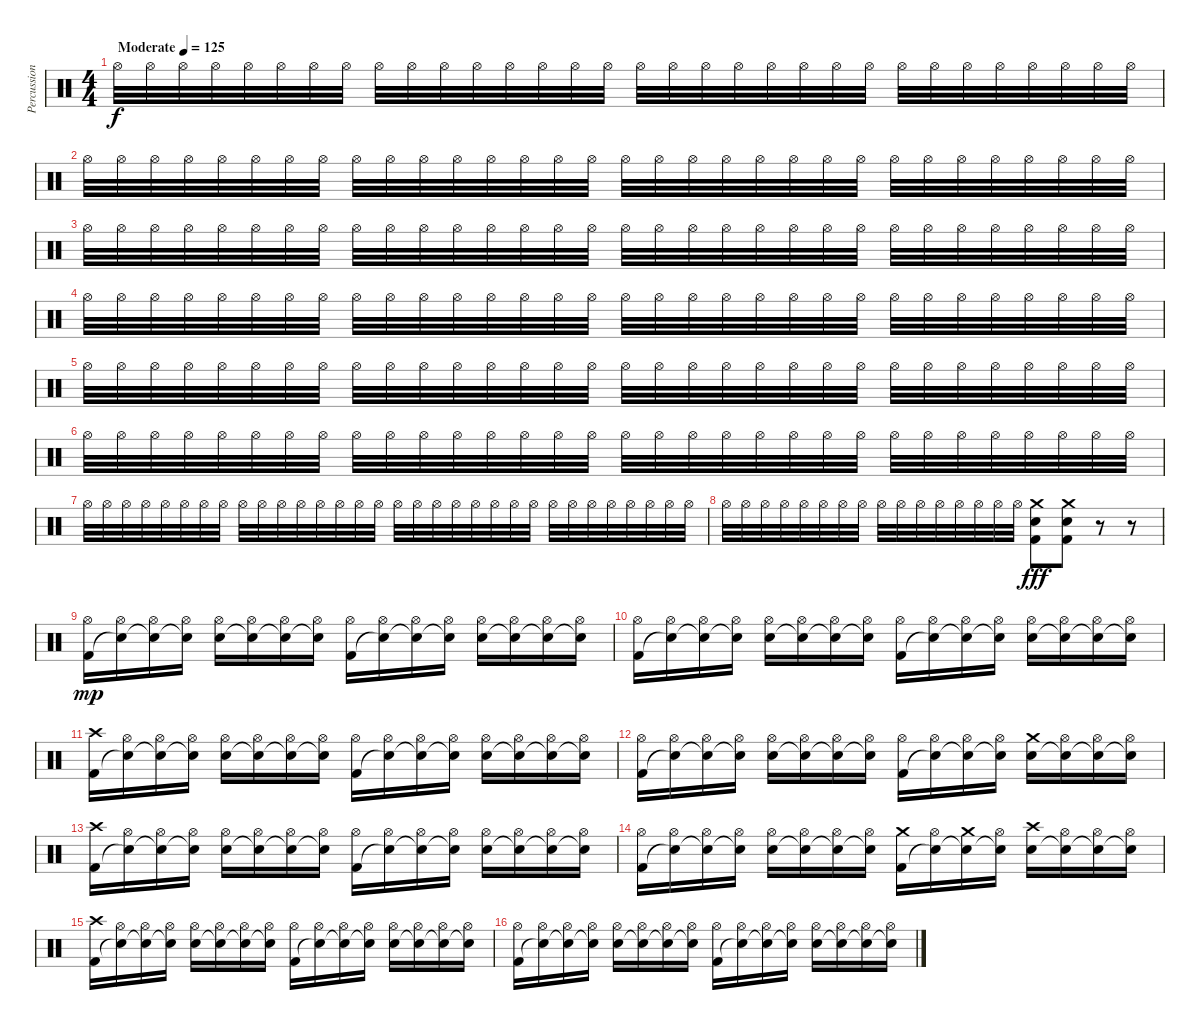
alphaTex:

\track ("Percussion" "Percussion") {instrument percussion}
\staff {score}
\articulation defaults
\ts (4 4)
\tempo (125 "Moderate")
\clef neutral
\ks c "Hi-Hat (open)".32{dy f volume 3} "Hi-Hat (open)".32{volume 16} "Hi-Hat (open)".32 "Hi-Hat (open)".32 "Hi-Hat (open)".32 "Hi-Hat (open)".32 "Hi-Hat (open)".32 "Hi-Hat (open)".32 "Hi-Hat (open)".32 "Hi-Hat (open)".32 "Hi-Hat (open)".32 "Hi-Hat (open)".32 "Hi-Hat (open)".32 "Hi-Hat (open)".32 "Hi-Hat (open)".32 "Hi-Hat (open)".32 "Hi-Hat (open)".32 "Hi-Hat (open)".32 "Hi-Hat (open)".32 "Hi-Hat (open)".32 "Hi-Hat (open)".32 "Hi-Hat (open)".32 "Hi-Hat (open)".32 "Hi-Hat (open)".32 "Hi-Hat (open)".32 "Hi-Hat (open)".32 "Hi-Hat (open)".32 "Hi-Hat (open)".32 "Hi-Hat (open)".32 "Hi-Hat (open)".32 "Hi-Hat (open)".32 "Hi-Hat (open)".32
|
"Hi-Hat (open)".32 "Hi-Hat (open)".32 "Hi-Hat (open)".32 "Hi-Hat (open)".32 "Hi-Hat (open)".32 "Hi-Hat (open)".32 "Hi-Hat (open)".32 "Hi-Hat (open)".32 "Hi-Hat (open)".32 "Hi-Hat (open)".32 "Hi-Hat (open)".32 "Hi-Hat (open)".32 "Hi-Hat (open)".32 "Hi-Hat (open)".32 "Hi-Hat (open)".32 "Hi-Hat (open)".32 "Hi-Hat (open)".32 "Hi-Hat (open)".32 "Hi-Hat (open)".32 "Hi-Hat (open)".32 "Hi-Hat (open)".32 "Hi-Hat (open)".32 "Hi-Hat (open)".32 "Hi-Hat (open)".32 "Hi-Hat (open)".32 "Hi-Hat (open)".32 "Hi-Hat (open)".32 "Hi-Hat (open)".32 "Hi-Hat (open)".32 "Hi-Hat (open)".32 "Hi-Hat (open)".32 "Hi-Hat (open)".32 |
"Hi-Hat (open)".32 "Hi-Hat (open)".32 "Hi-Hat (open)".32 "Hi-Hat (open)".32 "Hi-Hat (open)".32 "Hi-Hat (open)".32 "Hi-Hat (open)".32 "Hi-Hat (open)".32 "Hi-Hat (open)".32 "Hi-Hat (open)".32 "Hi-Hat (open)".32 "Hi-Hat (open)".32 "Hi-Hat (open)".32 "Hi-Hat (open)".32 "Hi-Hat (open)".32 "Hi-Hat (open)".32 "Hi-Hat (open)".32 "Hi-Hat (open)".32 "Hi-Hat (open)".32 "Hi-Hat (open)".32 "Hi-Hat (open)".32 "Hi-Hat (open)".32 "Hi-Hat (open)".32 "Hi-Hat (open)".32 "Hi-Hat (open)".32 "Hi-Hat (open)".32 "Hi-Hat (open)".32 "Hi-Hat (open)".32 "Hi-Hat (open)".32 "Hi-Hat (open)".32 "Hi-Hat (open)".32 "Hi-Hat (open)".32 |
"Hi-Hat (open)".32 "Hi-Hat (open)".32 "Hi-Hat (open)".32 "Hi-Hat (open)".32 "Hi-Hat (open)".32 "Hi-Hat (open)".32 "Hi-Hat (open)".32 "Hi-Hat (open)".32 "Hi-Hat (open)".32 "Hi-Hat (open)".32 "Hi-Hat (open)".32 "Hi-Hat (open)".32 "Hi-Hat (open)".32 "Hi-Hat (open)".32 "Hi-Hat (open)".32 "Hi-Hat (open)".32 "Hi-Hat (open)".32 "Hi-Hat (open)".32 "Hi-Hat (open)".32 "Hi-Hat (open)".32 "Hi-Hat (open)".32 "Hi-Hat (open)".32 "Hi-Hat (open)".32 "Hi-Hat (open)".32 "Hi-Hat (open)".32 "Hi-Hat (open)".32 "Hi-Hat (open)".32 "Hi-Hat (open)".32 "Hi-Hat (open)".32 "Hi-Hat (open)".32 "Hi-Hat (open)".32 "Hi-Hat (open)".32 |
"Hi-Hat (open)".32{volume 3} "Hi-Hat (open)".32{volume 16} "Hi-Hat (open)".32 "Hi-Hat (open)".32 "Hi-Hat (open)".32 "Hi-Hat (open)".32 "Hi-Hat (open)".32 "Hi-Hat (open)".32 "Hi-Hat (open)".32 "Hi-Hat (open)".32 "Hi-Hat (open)".32 "Hi-Hat (open)".32 "Hi-Hat (open)".32 "Hi-Hat (open)".32 "Hi-Hat (open)".32 "Hi-Hat (open)".32 "Hi-Hat (open)".32 "Hi-Hat (open)".32 "Hi-Hat (open)".32 "Hi-Hat (open)".32 "Hi-Hat (open)".32 "Hi-Hat (open)".32 "Hi-Hat (open)".32 "Hi-Hat (open)".32 "Hi-Hat (open)".32 "Hi-Hat (open)".32 "Hi-Hat (open)".32 "Hi-Hat (open)".32 "Hi-Hat (open)".32 "Hi-Hat (open)".32 "Hi-Hat (open)".32 "Hi-Hat (open)".32 |
"Hi-Hat (open)".32 "Hi-Hat (open)".32 "Hi-Hat (open)".32 "Hi-Hat (open)".32 "Hi-Hat (open)".32 "Hi-Hat (open)".32 "Hi-Hat (open)".32 "Hi-Hat (open)".32 "Hi-Hat (open)".32 "Hi-Hat (open)".32 "Hi-Hat (open)".32 "Hi-Hat (open)".32 "Hi-Hat (open)".32 "Hi-Hat (open)".32 "Hi-Hat (open)".32 "Hi-Hat (open)".32 "Hi-Hat (open)".32 "Hi-Hat (open)".32 "Hi-Hat (open)".32 "Hi-Hat (open)".32 "Hi-Hat (open)".32 "Hi-Hat (open)".32 "Hi-Hat (open)".32 "Hi-Hat (open)".32 "Hi-Hat (open)".32 "Hi-Hat (open)".32 "Hi-Hat (open)".32 "Hi-Hat (open)".32 "Hi-Hat (open)".32 "Hi-Hat (open)".32 "Hi-Hat (open)".32 "Hi-Hat (open)".32 |
"Hi-Hat (open)".32 "Hi-Hat (open)".32 "Hi-Hat (open)".32 "Hi-Hat (open)".32 "Hi-Hat (open)".32 "Hi-Hat (open)".32 "Hi-Hat (open)".32 "Hi-Hat (open)".32 "Hi-Hat (open)".32 "Hi-Hat (open)".32 "Hi-Hat (open)".32 "Hi-Hat (open)".32 "Hi-Hat (open)".32 "Hi-Hat (open)".32 "Hi-Hat (open)".32 "Hi-Hat (open)".32 "Hi-Hat (open)".32 "Hi-Hat (open)".32 "Hi-Hat (open)".32 "Hi-Hat (open)".32 "Hi-Hat (open)".32 "Hi-Hat (open)".32 "Hi-Hat (open)".32 "Hi-Hat (open)".32 "Hi-Hat (open)".32 "Hi-Hat (open)".32 "Hi-Hat (open)".32 "Hi-Hat (open)".32 "Hi-Hat (open)".32 "Hi-Hat (open)".32 "Hi-Hat (open)".32 "Hi-Hat (open)".32 |
"Hi-Hat (open)".32 "Hi-Hat (open)".32 "Hi-Hat (open)".32 "Hi-Hat (open)".32 "Hi-Hat (open)".32 "Hi-Hat (open)".32 "Hi-Hat (open)".32 "Hi-Hat (open)".32 "Hi-Hat (open)".32 "Hi-Hat (open)".32 "Hi-Hat (open)".32 "Hi-Hat (open)".32 "Hi-Hat (open)".32 "Hi-Hat (open)".32 "Hi-Hat (open)".32 "Hi-Hat (open)".32 ("Electric Snare (hit)" "Kick (hit) 2" "Crash medium (hit)").8{dy fff} ("Electric Snare (hit)" "Kick (hit) 2" "Crash medium (hit)").8 r.8 r.8 |
("Kick (hit) 2" "Hi-Hat (open)").16{dy mp} ("Snare (hit)"{t} "Hi-Hat (open)").16 ("Snare (hit)"{t} "Hi-Hat (open)").16 ("Snare (hit)"{t} "Hi-Hat (open)").16 ("Electric Snare (hit)" "Hi-Hat (open)").16 ("Snare (hit)"{t} "Hi-Hat (open)").16 ("Snare (hit)"{t} "Hi-Hat (open)").16 ("Snare (hit)"{t} "Hi-Hat (open)").16 ("Kick (hit) 2" "Hi-Hat (open)").16 ("Snare (hit)"{t} "Hi-Hat (open)").16 ("Snare (hit)"{t} "Hi-Hat (open)").16 ("Snare (hit)"{t} "Hi-Hat (open)").16 ("Electric Snare (hit)" "Hi-Hat (open)").16 ("Snare (hit)"{t} "Hi-Hat (open)").16 ("Snare (hit)"{t} "Hi-Hat (open)").16 ("Snare (hit)"{t} "Hi-Hat (open)").16 |
("Kick (hit) 2" "Hi-Hat (open)").16 ("Snare (hit)"{t} "Hi-Hat (open)").16 ("Snare (hit)"{t} "Hi-Hat (open)").16 ("Snare (hit)"{t} "Hi-Hat (open)").16 ("Electric Snare (hit)" "Hi-Hat (open)").16 ("Snare (hit)"{t} "Hi-Hat (open)").16 ("Snare (hit)"{t} "Hi-Hat (open)").16 ("Snare (hit)"{t} "Hi-Hat (open)").16 ("Kick (hit) 2" "Hi-Hat (open)").16 ("Snare (hit)"{t} "Hi-Hat (open)").16 ("Snare (hit)"{t} "Hi-Hat (open)").16 ("Snare (hit)"{t} "Hi-Hat (open)").16 ("Electric Snare (hit)" "Hi-Hat (open)").16 ("Snare (hit)"{t} "Hi-Hat (open)").16 ("Snare (hit)"{t} "Hi-Hat (open)").16 ("Snare (hit)"{t} "Hi-Hat (open)").16 |
("Kick (hit) 2" "Crash high (hit)").16 ("Snare (hit)"{t} "Hi-Hat (open)").16 ("Snare (hit)"{t} "Hi-Hat (open)").16 ("Snare (hit)"{t} "Hi-Hat (open)").16 ("Electric Snare (hit)" "Hi-Hat (open)").16 ("Snare (hit)"{t} "Hi-Hat (open)").16 ("Snare (hit)"{t} "Hi-Hat (open)").16 ("Snare (hit)"{t} "Hi-Hat (open)").16 ("Kick (hit) 2" "Hi-Hat (open)").16 ("Snare (hit)"{t} "Hi-Hat (open)").16 ("Snare (hit)"{t} "Hi-Hat (open)").16 ("Snare (hit)"{t} "Hi-Hat (open)").16 ("Electric Snare (hit)" "Hi-Hat (open)").16 ("Snare (hit)"{t} "Hi-Hat (open)").16 ("Snare (hit)"{t} "Hi-Hat (open)").16 ("Snare (hit)"{t} "Hi-Hat (open)").16 |
("Kick (hit) 2" "Hi-Hat (open)").16 ("Snare (hit)"{t} "Hi-Hat (open)").16 ("Snare (hit)"{t} "Hi-Hat (open)").16 ("Snare (hit)"{t} "Hi-Hat (open)").16 ("Electric Snare (hit)" "Hi-Hat (open)").16 ("Snare (hit)"{t} "Hi-Hat (open)").16 ("Snare (hit)"{t} "Hi-Hat (open)").16 ("Snare (hit)"{t} "Hi-Hat (open)").16 ("Kick (hit) 2" "Hi-Hat (open)").16 ("Snare (hit)"{t} "Hi-Hat (open)").16 ("Snare (hit)"{t} "Hi-Hat (open)").16 ("Snare (hit)"{t} "Hi-Hat (open)").16 ("Electric Snare (hit)" "Crash medium (hit)").16 ("Snare (hit)"{t} "Hi-Hat (open)").16 ("Snare (hit)"{t} "Hi-Hat (open)").16 ("Snare (hit)"{t} "Hi-Hat (open)").16 |
("Kick (hit) 2" "Crash high (hit)").16 ("Snare (hit)"{t} "Hi-Hat (open)").16 ("Snare (hit)"{t} "Hi-Hat (open)").16 ("Snare (hit)"{t} "Hi-Hat (open)").16 ("Electric Snare (hit)" "Hi-Hat (open)").16 ("Snare (hit)"{t} "Hi-Hat (open)").16 ("Snare (hit)"{t} "Hi-Hat (open)").16 ("Snare (hit)"{t} "Hi-Hat (open)").16 ("Kick (hit) 2" "Hi-Hat (open)").16 ("Snare (hit)"{t} "Hi-Hat (open)").16 ("Snare (hit)"{t} "Hi-Hat (open)").16 ("Snare (hit)"{t} "Hi-Hat (open)").16 ("Electric Snare (hit)" "Hi-Hat (open)").16 ("Snare (hit)"{t} "Hi-Hat (open)").16 ("Snare (hit)"{t} "Hi-Hat (open)").16 ("Snare (hit)"{t} "Hi-Hat (open)").16 |
("Kick (hit) 2" "Hi-Hat (open)").16 ("Snare (hit)"{t} "Hi-Hat (open)").16 ("Snare (hit)"{t} "Hi-Hat (open)").16 ("Snare (hit)"{t} "Hi-Hat (open)").16 ("Electric Snare (hit)" "Hi-Hat (open)").16 ("Snare (hit)"{t} "Hi-Hat (open)").16 ("Snare (hit)"{t} "Hi-Hat (open)").16 ("Snare (hit)"{t} "Hi-Hat (open)").16 ("Kick (hit) 2" "Crash medium (hit)").16 ("Snare (hit)"{t} "Hi-Hat (open)").16 ("Snare (hit)"{t} "Crash medium (hit)").16 ("Snare (hit)"{t} "Hi-Hat (open)").16 ("Electric Snare (hit)" "Crash high (hit)").16 ("Snare (hit)"{t} "Hi-Hat (open)").16 ("Snare (hit)"{t} "Hi-Hat (open)").16 ("Snare (hit)"{t} "Hi-Hat (open)").16 |
("Kick (hit) 2" "Crash high (hit)").16 ("Snare (hit)"{t} "Hi-Hat (open)").16 ("Snare (hit)"{t} "Hi-Hat (open)").16 ("Snare (hit)"{t} "Hi-Hat (open)").16 ("Electric Snare (hit)" "Hi-Hat (open)").16 ("Snare (hit)"{t} "Hi-Hat (open)").16 ("Snare (hit)"{t} "Hi-Hat (open)").16 ("Snare (hit)"{t} "Hi-Hat (open)").16 ("Kick (hit) 2" "Hi-Hat (open)").16 ("Snare (hit)"{t} "Hi-Hat (open)").16 ("Snare (hit)"{t} "Hi-Hat (open)").16 ("Snare (hit)"{t} "Hi-Hat (open)").16 ("Electric Snare (hit)" "Hi-Hat (open)").16 ("Snare (hit)"{t} "Hi-Hat (open)").16 ("Snare (hit)"{t} "Hi-Hat (open)").16 ("Snare (hit)"{t} "Hi-Hat (open)").16 |
("Kick (hit) 2" "Hi-Hat (open)").16 ("Snare (hit)"{t} "Hi-Hat (open)").16 ("Snare (hit)"{t} "Hi-Hat (open)").16 ("Snare (hit)"{t} "Hi-Hat (open)").16 ("Electric Snare (hit)" "Hi-Hat (open)").16 ("Snare (hit)"{t} "Hi-Hat (open)").16 ("Snare (hit)"{t} "Hi-Hat (open)").16 ("Snare (hit)"{t} "Hi-Hat (open)").16 ("Kick (hit) 2" "Hi-Hat (open)").16 ("Snare (hit)"{t} "Hi-Hat (open)").16 ("Snare (hit)"{t} "Hi-Hat (open)").16 ("Snare (hit)"{t} "Hi-Hat (open)").16 ("Electric Snare (hit)" "Hi-Hat (open)").16 ("Snare (hit)"{t} "Hi-Hat (open)").16 ("Snare (hit)"{t} "Hi-Hat (open)").16 ("Snare (hit)"{t} "Hi-Hat (open)").16
